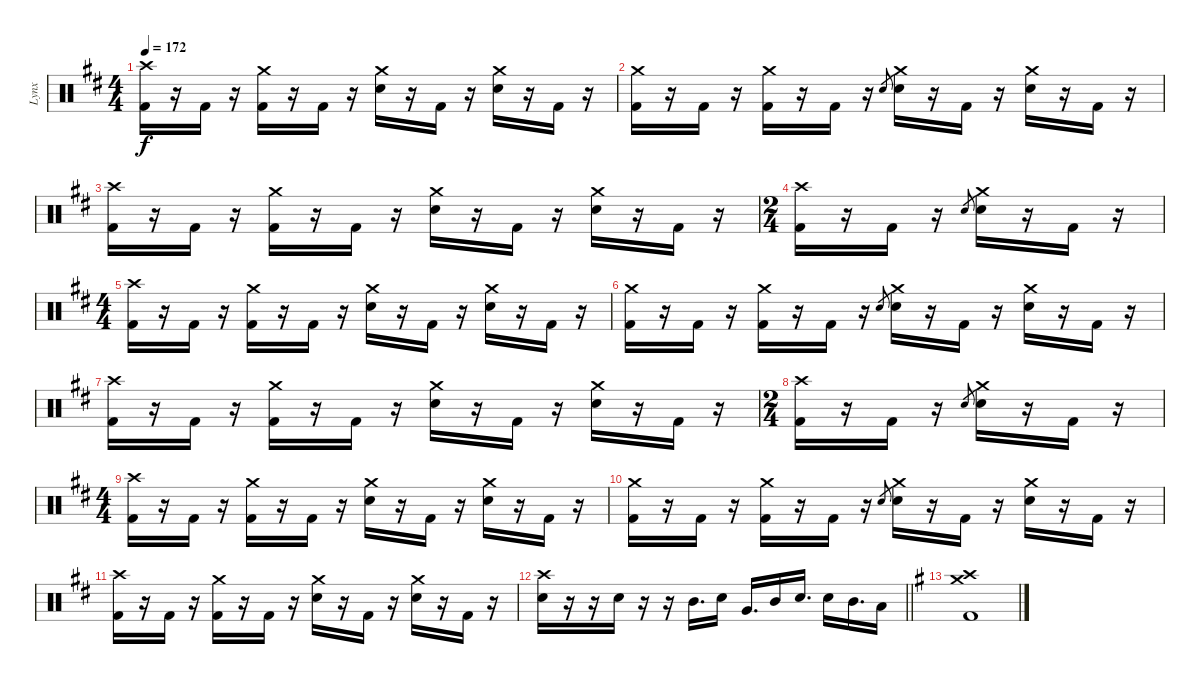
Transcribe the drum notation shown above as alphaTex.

\track ("Lynx" "Lynx") {instrument percussion}
\staff {score}
\articulation defaults
\ts (4 4)
\tempo 172
\clef neutral
\ks d
("Crash high (hit)" "Kick (hit) 2").16{dy f} r.16 "Kick (hit) 2".16 r.16 ("Crash medium (hit)" "Kick (hit) 2").16 r.16 "Kick (hit) 2".16 r.16 ("Crash medium (hit)" "Electric Snare (hit)").16 r.16 "Kick (hit) 2".16 r.16 ("Crash medium (hit)" "Electric Snare (hit)").16 r.16 "Kick (hit) 2".16 r.16 |
("Crash medium (hit)" "Kick (hit) 2").16 r.16 "Kick (hit) 2".16 r.16 ("Crash medium (hit)" "Kick (hit) 2").16 r.16 "Kick (hit) 2".16 r.16 "Electric Snare (hit)".8{gr} ("Crash medium (hit)" "Electric Snare (hit)").16 r.16 "Kick (hit) 2".16 r.16 ("Crash medium (hit)" "Electric Snare (hit)").16 r.16 "Kick (hit) 2".16 r.16 |
("Crash high (hit)" "Kick (hit) 2").16 r.16 "Kick (hit) 2".16 r.16 ("Crash medium (hit)" "Kick (hit) 2").16 r.16 "Kick (hit) 2".16 r.16 ("Crash medium (hit)" "Electric Snare (hit)").16 r.16 "Kick (hit) 2".16 r.16 ("Crash medium (hit)" "Electric Snare (hit)").16 r.16 "Kick (hit) 2".16 r.16 |
\ts (2 4)
("Crash high (hit)" "Kick (hit) 2").16 r.16 "Kick (hit) 2".16 r.16 "Electric Snare (hit)".8{gr} ("Crash medium (hit)" "Electric Snare (hit)").16 r.16 "Kick (hit) 2".16 r.16 |
\ts (4 4)
("Crash high (hit)" "Kick (hit) 2").16 r.16 "Kick (hit) 2".16 r.16 ("Crash medium (hit)" "Kick (hit) 2").16 r.16 "Kick (hit) 2".16 r.16 ("Crash medium (hit)" "Electric Snare (hit)").16 r.16 "Kick (hit) 2".16 r.16 ("Crash medium (hit)" "Electric Snare (hit)").16 r.16 "Kick (hit) 2".16 r.16 |
("Crash medium (hit)" "Kick (hit) 2").16 r.16 "Kick (hit) 2".16 r.16 ("Crash medium (hit)" "Kick (hit) 2").16 r.16 "Kick (hit) 2".16 r.16 "Electric Snare (hit)".8{gr} ("Crash medium (hit)" "Electric Snare (hit)").16 r.16 "Kick (hit) 2".16 r.16 ("Crash medium (hit)" "Electric Snare (hit)").16 r.16 "Kick (hit) 2".16 r.16 |
("Crash high (hit)" "Kick (hit) 2").16 r.16 "Kick (hit) 2".16 r.16 ("Crash medium (hit)" "Kick (hit) 2").16 r.16 "Kick (hit) 2".16 r.16 ("Crash medium (hit)" "Electric Snare (hit)").16 r.16 "Kick (hit) 2".16 r.16 ("Crash medium (hit)" "Electric Snare (hit)").16 r.16 "Kick (hit) 2".16 r.16 |
\ts (2 4)
("Crash high (hit)" "Kick (hit) 2").16 r.16 "Kick (hit) 2".16 r.16 "Electric Snare (hit)".8{gr} ("Crash medium (hit)" "Electric Snare (hit)").16 r.16 "Kick (hit) 2".16 r.16 |
\ts (4 4)
("Crash high (hit)" "Kick (hit) 2").16 r.16 "Kick (hit) 2".16 r.16 ("Crash medium (hit)" "Kick (hit) 2").16 r.16 "Kick (hit) 2".16 r.16 ("Crash medium (hit)" "Electric Snare (hit)").16 r.16 "Kick (hit) 2".16 r.16 ("Crash medium (hit)" "Electric Snare (hit)").16 r.16 "Kick (hit) 2".16 r.16 |
("Crash medium (hit)" "Kick (hit) 2").16 r.16 "Kick (hit) 2".16 r.16 ("Crash medium (hit)" "Kick (hit) 2").16 r.16 "Kick (hit) 2".16 r.16 "Electric Snare (hit)".8{gr} ("Crash medium (hit)" "Electric Snare (hit)").16 r.16 "Kick (hit) 2".16 r.16 ("Crash medium (hit)" "Electric Snare (hit)").16 r.16 "Kick (hit) 2".16 r.16 |
("Crash high (hit)" "Kick (hit) 2").16 r.16 "Kick (hit) 2".16 r.16 ("Crash medium (hit)" "Kick (hit) 2").16 r.16 "Kick (hit) 2".16 r.16 ("Crash medium (hit)" "Electric Snare (hit)").16 r.16 "Kick (hit) 2".16 r.16 ("Crash medium (hit)" "Electric Snare (hit)").16 r.16 "Kick (hit) 2".16 r.16 |
\barLineRight lightlight
("Crash high (hit)" "Electric Snare (hit)").16 r.16 r.16 "Electric Snare (hit)".16 r.16 r.16 "Mid Tom (hit)".16{d} "Electric Snare (hit)".16 "Very Low Tom (hit)".16{d} "Mid Tom (hit)".16 "Electric Snare (hit)".16{d} "Electric Snare (hit)".16 "Mid Tom (hit)".16{d} "Low Tom (hit)".16 |
\ks g
("Crash high (hit)" "Crash medium (hit)" "Kick (hit) 2").1
